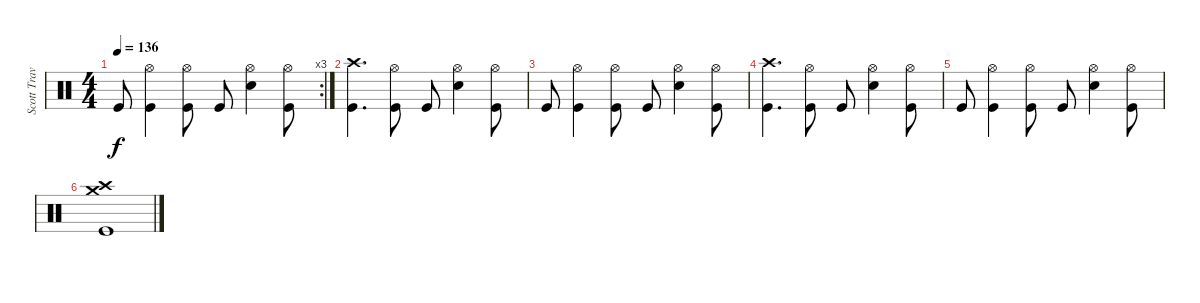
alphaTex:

\track ("Scott Travis" "Scott Trav") {instrument percussion}
\staff {score}
\articulation defaults
\rc 3
\ts (4 4)
\tempo 136
\clef neutral
\ks c "Kick (hit)".8{dy f}
("Hi-Hat (open)" "Kick (hit)").4 ("Hi-Hat (open)" "Kick (hit)").8 "Kick (hit)".8 ("Hi-Hat (open)" "Electric Snare (hit)").4 ("Hi-Hat (open)" "Kick (hit)").8 |
("Crash high (hit)" "Kick (hit)").4{d} ("Hi-Hat (open)" "Kick (hit)").8 "Kick (hit)".8 ("Hi-Hat (open)" "Electric Snare (hit)").4 ("Hi-Hat (open)" "Kick (hit)").8 |
"Kick (hit)".8 ("Hi-Hat (open)" "Kick (hit)").4 ("Hi-Hat (open)" "Kick (hit)").8 "Kick (hit)".8 ("Hi-Hat (open)" "Electric Snare (hit)").4 ("Hi-Hat (open)" "Kick (hit)").8 |
("Crash high (hit)" "Kick (hit)").4{d} ("Hi-Hat (open)" "Kick (hit)").8 "Kick (hit)".8 ("Hi-Hat (open)" "Electric Snare (hit)").4 ("Hi-Hat (open)" "Kick (hit)").8 |
"Kick (hit)".8 ("Hi-Hat (open)" "Kick (hit)").4 ("Hi-Hat (open)" "Kick (hit)").8 "Kick (hit)".8 ("Hi-Hat (open)" "Electric Snare (hit)").4 ("Hi-Hat (open)" "Kick (hit)").8 |
("Crash high (hit)" "Crash medium (hit)" "Kick (hit)").1
